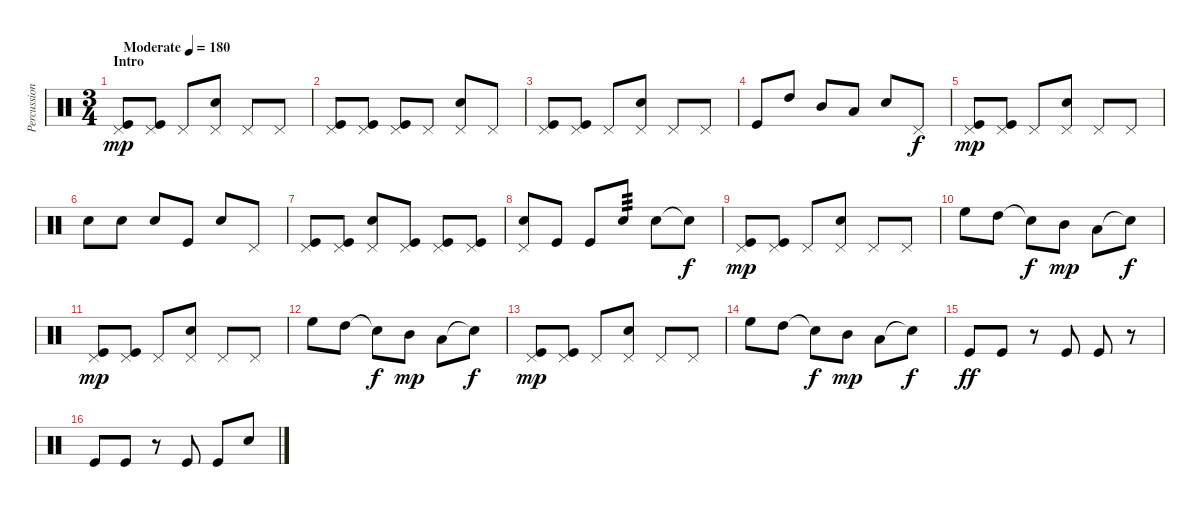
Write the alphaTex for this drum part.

\track ("Percussion" "Percussion") {instrument percussion}
\staff {score}
\articulation defaults
\ts (3 4)
\section ("" "Intro")
\tempo (180 "Moderate")
\clef neutral
\ks c
("Pedal Hi-Hat (hit)" "Kick (hit)").8{dy mp} ("Pedal Hi-Hat (hit)" "Kick (hit)").8 "Pedal Hi-Hat (hit)".8 ("Pedal Hi-Hat (hit)" "Electric Snare (hit)").8 "Pedal Hi-Hat (hit)".8 "Pedal Hi-Hat (hit)".8 |
("Pedal Hi-Hat (hit)" "Kick (hit)").8 ("Pedal Hi-Hat (hit)" "Kick (hit)").8 ("Pedal Hi-Hat (hit)" "Kick (hit)").8 "Pedal Hi-Hat (hit)".8 ("Pedal Hi-Hat (hit)" "Electric Snare (hit)").8 "Pedal Hi-Hat (hit)".8 |
("Pedal Hi-Hat (hit)" "Kick (hit)").8 ("Pedal Hi-Hat (hit)" "Kick (hit)").8 "Pedal Hi-Hat (hit)".8 ("Pedal Hi-Hat (hit)" "Electric Snare (hit)").8 "Pedal Hi-Hat (hit)".8 "Pedal Hi-Hat (hit)".8 |
"Kick (hit)".8 "High Tom (hit)".8 "Mid Tom (hit)".8 "Low Tom (hit)".8 "Electric Snare (hit)".8 "Pedal Hi-Hat (hit)".8{dy f} |
("Pedal Hi-Hat (hit)" "Kick (hit)").8{dy mp} ("Pedal Hi-Hat (hit)" "Kick (hit)").8 "Pedal Hi-Hat (hit)".8 ("Pedal Hi-Hat (hit)" "Electric Snare (hit)").8 "Pedal Hi-Hat (hit)".8 "Pedal Hi-Hat (hit)".8 |
"Electric Snare (hit)".8 "Electric Snare (hit)".8 "Electric Snare (hit)".8 "Kick (hit)".8 "Electric Snare (hit)".8 "Pedal Hi-Hat (hit)".8 |
("Pedal Hi-Hat (hit)" "Kick (hit)").8 ("Pedal Hi-Hat (hit)" "Kick (hit)").8 ("Pedal Hi-Hat (hit)" "Electric Snare (hit)").8 ("Pedal Hi-Hat (hit)" "Kick (hit)").8 ("Pedal Hi-Hat (hit)" "Kick (hit)").8 ("Pedal Hi-Hat (hit)" "Kick (hit)").8 |
("Pedal Hi-Hat (hit)" "Electric Snare (hit)").8 "Kick (hit)".8 "Kick (hit)".8 "Electric Snare (hit)".8{tp 3} "Electric Snare (hit)".8 "Snare (hit)"{t}.8{dy f} |
("Pedal Hi-Hat (hit)" "Kick (hit)").8{dy mp} ("Pedal Hi-Hat (hit)" "Kick (hit)").8 "Pedal Hi-Hat (hit)".8 ("Pedal Hi-Hat (hit)" "Electric Snare (hit)").8 "Pedal Hi-Hat (hit)".8 "Pedal Hi-Hat (hit)".8 |
"High Floor Tom (hit)".8 "High Tom (hit)".8 "Snare (hit)"{t}.8{dy f} "Mid Tom (hit)".8{dy mp} "Low Tom (hit)".8 "Snare (hit)"{t}.8{dy f} |
("Pedal Hi-Hat (hit)" "Kick (hit)").8{dy mp} ("Pedal Hi-Hat (hit)" "Kick (hit)").8 "Pedal Hi-Hat (hit)".8 ("Pedal Hi-Hat (hit)" "Electric Snare (hit)").8 "Pedal Hi-Hat (hit)".8 "Pedal Hi-Hat (hit)".8 |
"High Floor Tom (hit)".8 "High Tom (hit)".8 "Snare (hit)"{t}.8{dy f} "Mid Tom (hit)".8{dy mp} "Low Tom (hit)".8 "Snare (hit)"{t}.8{dy f} |
("Pedal Hi-Hat (hit)" "Kick (hit)").8{dy mp} ("Pedal Hi-Hat (hit)" "Kick (hit)").8 "Pedal Hi-Hat (hit)".8 ("Pedal Hi-Hat (hit)" "Electric Snare (hit)").8 "Pedal Hi-Hat (hit)".8 "Pedal Hi-Hat (hit)".8 |
"High Floor Tom (hit)".8 "High Tom (hit)".8 "Snare (hit)"{t}.8{dy f} "Mid Tom (hit)".8{dy mp} "Low Tom (hit)".8 "Snare (hit)"{t}.8{dy f} |
"Kick (hit)".8{dy ff} "Kick (hit)".8 r.8 "Kick (hit)".8 "Kick (hit)".8 r.8 |
"Kick (hit)".8 "Kick (hit)".8 r.8 "Kick (hit)".8 "Kick (hit)".8 "Electric Snare (hit)".8
